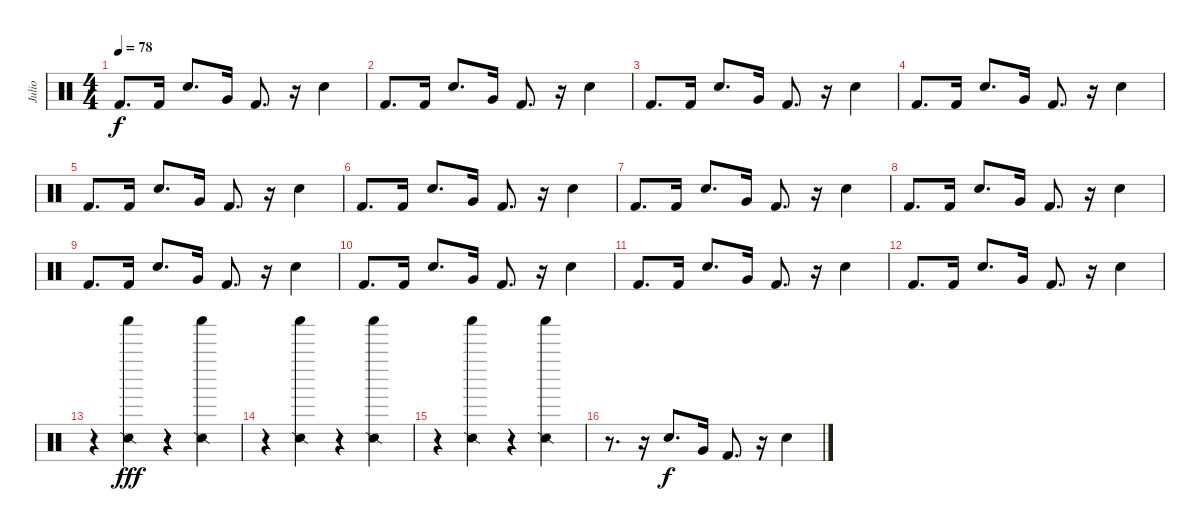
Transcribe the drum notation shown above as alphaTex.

\track ("Julio" "Julio") {instrument percussion}
\staff {score}
\articulation defaults
\ts (4 4)
\tempo 78
\clef neutral
\ks c "Kick (hit) 2".8{d dy f} "Kick (hit) 2".16 "Electric Snare (hit)".8{d} "Very Low Tom (hit)".16 "Kick (hit) 2".8{d}
r.16 "Electric Snare (hit)".4 |
"Kick (hit) 2".8{d} "Kick (hit) 2".16 "Electric Snare (hit)".8{d} "Very Low Tom (hit)".16 "Kick (hit) 2".8{d} r.16 "Electric Snare (hit)".4 |
"Kick (hit) 2".8{d} "Kick (hit) 2".16 "Electric Snare (hit)".8{d} "Very Low Tom (hit)".16 "Kick (hit) 2".8{d} r.16 "Electric Snare (hit)".4 |
"Kick (hit) 2".8{d} "Kick (hit) 2".16 "Electric Snare (hit)".8{d} "Very Low Tom (hit)".16 "Kick (hit) 2".8{d} r.16 "Electric Snare (hit)".4 |
"Kick (hit) 2".8{d} "Kick (hit) 2".16 "Electric Snare (hit)".8{d} "Very Low Tom (hit)".16 "Kick (hit) 2".8{d} r.16 "Electric Snare (hit)".4 |
"Kick (hit) 2".8{d} "Kick (hit) 2".16 "Electric Snare (hit)".8{d} "Very Low Tom (hit)".16 "Kick (hit) 2".8{d} r.16 "Electric Snare (hit)".4 |
"Kick (hit) 2".8{d} "Kick (hit) 2".16 "Electric Snare (hit)".8{d} "Very Low Tom (hit)".16 "Kick (hit) 2".8{d} r.16 "Electric Snare (hit)".4 |
"Kick (hit) 2".8{d} "Kick (hit) 2".16 "Electric Snare (hit)".8{d} "Very Low Tom (hit)".16 "Kick (hit) 2".8{d} r.16 "Electric Snare (hit)".4 |
"Kick (hit) 2".8{d} "Kick (hit) 2".16 "Electric Snare (hit)".8{d} "Very Low Tom (hit)".16 "Kick (hit) 2".8{d} r.16 "Electric Snare (hit)".4 |
"Kick (hit) 2".8{d} "Kick (hit) 2".16 "Electric Snare (hit)".8{d} "Very Low Tom (hit)".16 "Kick (hit) 2".8{d} r.16 "Electric Snare (hit)".4 |
"Kick (hit) 2".8{d} "Kick (hit) 2".16 "Electric Snare (hit)".8{d} "Very Low Tom (hit)".16 "Kick (hit) 2".8{d} r.16 "Electric Snare (hit)".4 |
"Kick (hit) 2".8{d} "Kick (hit) 2".16 "Electric Snare (hit)".8{d} "Very Low Tom (hit)".16 "Kick (hit) 2".8{d} r.16 "Electric Snare (hit)".4 |
r.4 ("Snare (side stick) 2" "Shaker (hit)").4{dy fff} r.4 ("Shaker (hit)" "Snare (side stick) 2").4 |
r.4 ("Shaker (hit)" "Snare (side stick) 2").4 r.4 ("Shaker (hit)" "Snare (side stick) 2").4 |
r.4 ("Shaker (hit)" "Snare (side stick) 2").4 r.4 ("Shaker (hit)" "Snare (side stick) 2").4 |
r.8{d} r.16 "Electric Snare (hit)".8{d dy f} "Very Low Tom (hit)".16 "Kick (hit) 2".8{d} r.16 "Electric Snare (hit)".4
